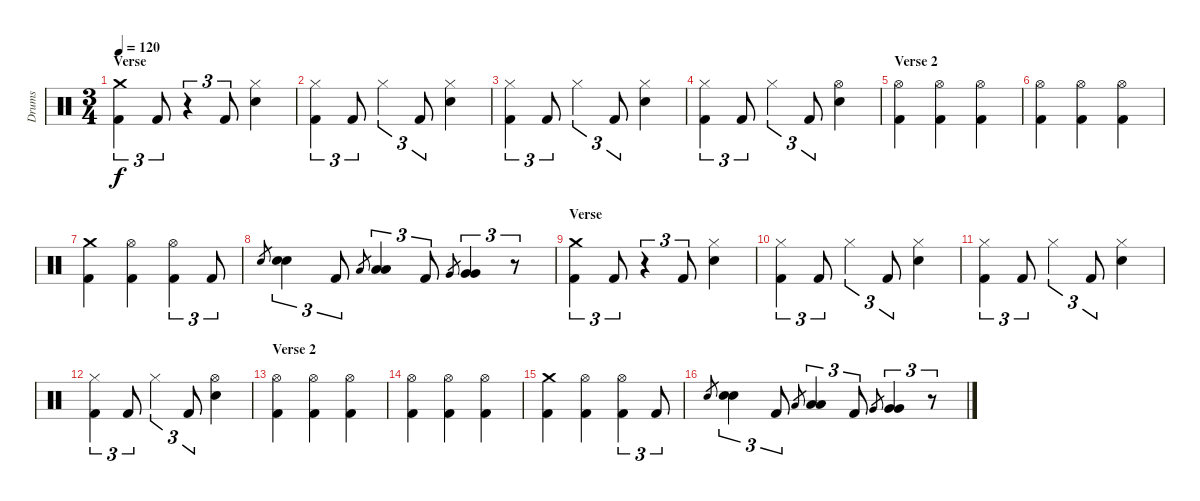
\track ("Drums" "Drums") {instrument percussion}
\staff {score}
\articulation defaults
\ts (3 4)
\section ("" "Verse")
\tempo 120
\clef neutral
\ks c
("Crash medium (hit)" "Kick (hit) 2").4{tu (3 2) dy f} "Kick (hit) 2".8{tu (3 2)} r.4{tu (3 2)} "Kick (hit) 2".8{tu (3 2)} ("Hi-Hat (closed)" "Snare (hit) 2").4 |
("Hi-Hat (closed)" "Kick (hit) 2").4{tu (3 2)} "Kick (hit) 2".8{tu (3 2)} "Hi-Hat (closed)".4{tu (3 2)} "Kick (hit) 2".8{tu (3 2)} ("Hi-Hat (closed)" "Snare (hit) 2").4 |
("Hi-Hat (closed)" "Kick (hit) 2").4{tu (3 2)} "Kick (hit) 2".8{tu (3 2)} "Hi-Hat (closed)".4{tu (3 2)} "Kick (hit) 2".8{tu (3 2)} ("Hi-Hat (closed)" "Snare (hit) 2").4 |
("Hi-Hat (closed)" "Kick (hit) 2").4{tu (3 2)} "Kick (hit) 2".8{tu (3 2)} "Hi-Hat (closed)".4{tu (3 2)} "Kick (hit) 2".8{tu (3 2)} ("Hi-Hat (open)" "Snare (hit) 2").4 |
\section ("" "Verse 2")
("Hi-Hat (open)" "Kick (hit) 2").4 ("Hi-Hat (open)" "Kick (hit) 2").4 ("Hi-Hat (open)" "Kick (hit) 2").4 |
("Hi-Hat (open)" "Kick (hit) 2").4 ("Hi-Hat (open)" "Kick (hit) 2").4 ("Hi-Hat (open)" "Kick (hit) 2").4 |
("Crash medium (hit)" "Kick (hit) 2").4 ("Hi-Hat (open)" "Kick (hit) 2").4 ("Hi-Hat (open)" "Kick (hit) 2").4{tu (3 2)} "Kick (hit) 2".8{tu (3 2)} |
"Electric Snare (hit)".8{gr} ("Electric Snare (hit)" "Electric Snare (hit)").4{tu (3 2)} "Kick (hit) 2".8{tu (3 2)} "Low Tom (hit)".8{gr} ("Low Tom (hit)" "Low Tom (hit)").4{tu (3 2)} "Kick (hit) 2".8{tu (3 2)} "Very Low Tom (hit)".8{gr} ("Very Low Tom (hit)" "Very Low Tom (hit)").4{tu (3 2)} r.8{tu (3 2)} |
\section ("" "Verse")
("Crash medium (hit)" "Kick (hit) 2").4{tu (3 2)} "Kick (hit) 2".8{tu (3 2)} r.4{tu (3 2)} "Kick (hit) 2".8{tu (3 2)} ("Hi-Hat (closed)" "Snare (hit) 2").4 |
("Hi-Hat (closed)" "Kick (hit) 2").4{tu (3 2)} "Kick (hit) 2".8{tu (3 2)} "Hi-Hat (closed)".4{tu (3 2)} "Kick (hit) 2".8{tu (3 2)} ("Hi-Hat (closed)" "Snare (hit) 2").4 |
("Hi-Hat (closed)" "Kick (hit) 2").4{tu (3 2)} "Kick (hit) 2".8{tu (3 2)} "Hi-Hat (closed)".4{tu (3 2)} "Kick (hit) 2".8{tu (3 2)} ("Hi-Hat (closed)" "Snare (hit) 2").4 |
("Hi-Hat (closed)" "Kick (hit) 2").4{tu (3 2)} "Kick (hit) 2".8{tu (3 2)} "Hi-Hat (closed)".4{tu (3 2)} "Kick (hit) 2".8{tu (3 2)} ("Hi-Hat (open)" "Snare (hit) 2").4 |
\section ("" "Verse 2")
("Hi-Hat (open)" "Kick (hit) 2").4 ("Hi-Hat (open)" "Kick (hit) 2").4 ("Hi-Hat (open)" "Kick (hit) 2").4 |
("Hi-Hat (open)" "Kick (hit) 2").4 ("Hi-Hat (open)" "Kick (hit) 2").4 ("Hi-Hat (open)" "Kick (hit) 2").4 |
("Crash medium (hit)" "Kick (hit) 2").4 ("Hi-Hat (open)" "Kick (hit) 2").4 ("Hi-Hat (open)" "Kick (hit) 2").4{tu (3 2)} "Kick (hit) 2".8{tu (3 2)} |
"Electric Snare (hit)".8{gr} ("Electric Snare (hit)" "Electric Snare (hit)").4{tu (3 2)} "Kick (hit) 2".8{tu (3 2)} "Low Tom (hit)".8{gr} ("Low Tom (hit)" "Low Tom (hit)").4{tu (3 2)} "Kick (hit) 2".8{tu (3 2)} "Very Low Tom (hit)".8{gr} ("Very Low Tom (hit)" "Very Low Tom (hit)").4{tu (3 2)} r.8{tu (3 2)}
